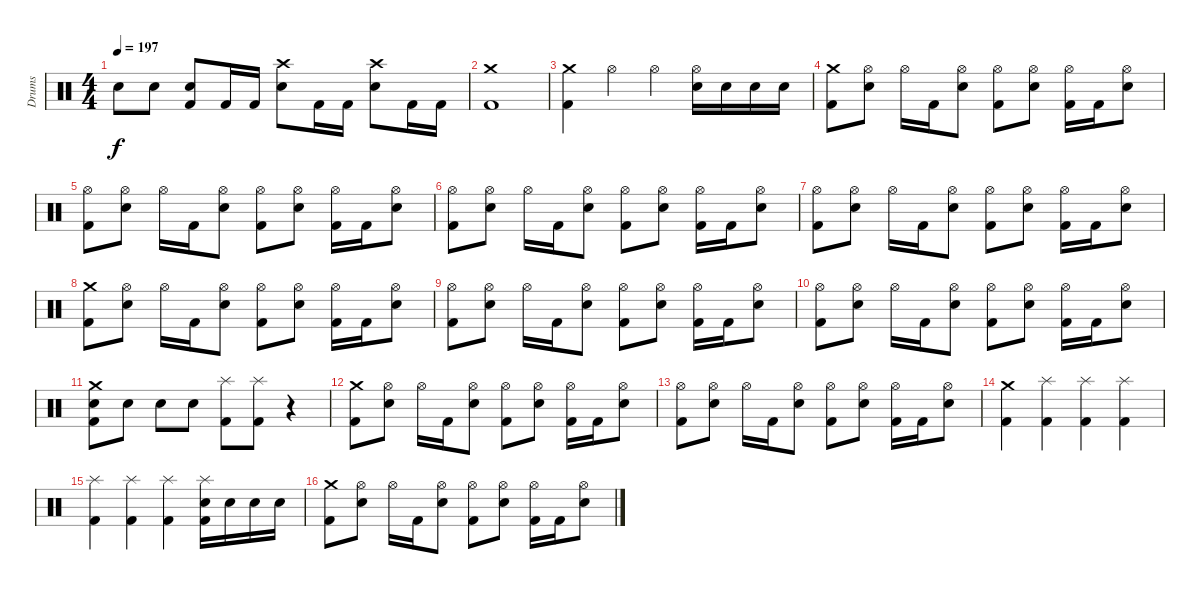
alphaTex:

\track ("Drums" "Drums") {instrument percussion}
\staff {score}
\articulation defaults
\ts (4 4)
\tempo 197
\clef neutral
\ks c "Snare (hit) 2".8{dy f} "Snare (hit) 2".8
("Snare (hit) 2" "Kick (hit) 2").8 "Kick (hit) 2".16 "Kick (hit) 2".16 ("Crash high (hit)" "Snare (hit) 2").8 "Kick (hit) 2".16 "Kick (hit) 2".16 ("Crash high (hit)" "Snare (hit) 2").8 "Kick (hit) 2".16 "Kick (hit) 2".16 |
("Crash medium (hit)" "Kick (hit) 2").1 |
("Crash medium (hit)" "Kick (hit) 2").4 "Hi-Hat (open)".4 "Hi-Hat (open)".4 ("Hi-Hat (open)" "Snare (hit) 2").16 "Snare (hit) 2".16 "Snare (hit) 2".16 "Snare (hit) 2".16 |
("Crash medium (hit)" "Kick (hit) 2").8 ("Hi-Hat (open)" "Snare (hit) 2").8 "Hi-Hat (open)".16 "Kick (hit) 2".16 ("Hi-Hat (open)" "Snare (hit) 2").8 ("Hi-Hat (open)" "Kick (hit) 2").8 ("Hi-Hat (open)" "Snare (hit) 2").8 ("Hi-Hat (open)" "Kick (hit) 2").16 "Kick (hit) 2".16 ("Hi-Hat (open)" "Snare (hit) 2").8 |
("Hi-Hat (open)" "Kick (hit) 2").8 ("Hi-Hat (open)" "Snare (hit) 2").8 "Hi-Hat (open)".16 "Kick (hit) 2".16 ("Hi-Hat (open)" "Snare (hit) 2").8 ("Hi-Hat (open)" "Kick (hit) 2").8 ("Hi-Hat (open)" "Snare (hit) 2").8 ("Hi-Hat (open)" "Kick (hit) 2").16 "Kick (hit) 2".16 ("Hi-Hat (open)" "Snare (hit) 2").8 |
("Hi-Hat (open)" "Kick (hit) 2").8 ("Hi-Hat (open)" "Snare (hit) 2").8 "Hi-Hat (open)".16 "Kick (hit) 2".16 ("Hi-Hat (open)" "Snare (hit) 2").8 ("Hi-Hat (open)" "Kick (hit) 2").8 ("Hi-Hat (open)" "Snare (hit) 2").8 ("Hi-Hat (open)" "Kick (hit) 2").16 "Kick (hit) 2".16 ("Hi-Hat (open)" "Snare (hit) 2").8 |
("Hi-Hat (open)" "Kick (hit) 2").8 ("Hi-Hat (open)" "Snare (hit) 2").8 "Hi-Hat (open)".16 "Kick (hit) 2".16 ("Hi-Hat (open)" "Snare (hit) 2").8 ("Hi-Hat (open)" "Kick (hit) 2").8 ("Hi-Hat (open)" "Snare (hit) 2").8 ("Hi-Hat (open)" "Kick (hit) 2").16 "Kick (hit) 2".16 ("Hi-Hat (open)" "Snare (hit) 2").8 |
("Crash medium (hit)" "Kick (hit) 2").8 ("Hi-Hat (open)" "Snare (hit) 2").8 "Hi-Hat (open)".16 "Kick (hit) 2".16 ("Hi-Hat (open)" "Snare (hit) 2").8 ("Hi-Hat (open)" "Kick (hit) 2").8 ("Hi-Hat (open)" "Snare (hit) 2").8 ("Hi-Hat (open)" "Kick (hit) 2").16 "Kick (hit) 2".16 ("Hi-Hat (open)" "Snare (hit) 2").8 |
("Hi-Hat (open)" "Kick (hit) 2").8 ("Hi-Hat (open)" "Snare (hit) 2").8 "Hi-Hat (open)".16 "Kick (hit) 2".16 ("Hi-Hat (open)" "Snare (hit) 2").8 ("Hi-Hat (open)" "Kick (hit) 2").8 ("Hi-Hat (open)" "Snare (hit) 2").8 ("Hi-Hat (open)" "Kick (hit) 2").16 "Kick (hit) 2".16 ("Hi-Hat (open)" "Snare (hit) 2").8 |
("Hi-Hat (open)" "Kick (hit) 2").8 ("Hi-Hat (open)" "Snare (hit) 2").8 "Hi-Hat (open)".16 "Kick (hit) 2".16 ("Hi-Hat (open)" "Snare (hit) 2").8 ("Hi-Hat (open)" "Kick (hit) 2").8 ("Hi-Hat (open)" "Snare (hit) 2").8 ("Hi-Hat (open)" "Kick (hit) 2").16 "Kick (hit) 2".16 ("Hi-Hat (open)" "Snare (hit) 2").8 |
("Crash medium (hit)" "Snare (hit) 2" "Kick (hit) 2").8 "Snare (hit) 2".8 "Snare (hit) 2".8 "Snare (hit) 2".8 ("Splash (hit)" "Kick (hit) 2").8 ("Splash (hit)" "Kick (hit) 2").8 r.4 |
("Crash medium (hit)" "Kick (hit) 2").8 ("Hi-Hat (open)" "Snare (hit) 2").8 "Hi-Hat (open)".16 "Kick (hit) 2".16 ("Hi-Hat (open)" "Snare (hit) 2").8 ("Hi-Hat (open)" "Kick (hit) 2").8 ("Hi-Hat (open)" "Snare (hit) 2").8 ("Hi-Hat (open)" "Kick (hit) 2").16 "Kick (hit) 2".16 ("Hi-Hat (open)" "Snare (hit) 2").8 |
("Hi-Hat (open)" "Kick (hit) 2").8 ("Hi-Hat (open)" "Snare (hit) 2").8 "Hi-Hat (open)".16 "Kick (hit) 2".16 ("Hi-Hat (open)" "Snare (hit) 2").8 ("Hi-Hat (open)" "Kick (hit) 2").8 ("Hi-Hat (open)" "Snare (hit) 2").8 ("Hi-Hat (open)" "Kick (hit) 2").16 "Kick (hit) 2".16 ("Hi-Hat (open)" "Snare (hit) 2").8 |
("Crash medium (hit)" "Kick (hit) 2").4 ("Splash (hit)" "Kick (hit) 2").4 ("Splash (hit)" "Kick (hit) 2").4 ("Splash (hit)" "Kick (hit) 2").4 |
("Splash (hit)" "Kick (hit) 2").4 ("Splash (hit)" "Kick (hit) 2").4 ("Splash (hit)" "Kick (hit) 2").4 ("Splash (hit)" "Snare (hit) 2" "Kick (hit) 2").16 "Snare (hit) 2".16 "Snare (hit) 2".16 "Snare (hit) 2".16 |
("Crash medium (hit)" "Kick (hit) 2").8 ("Hi-Hat (open)" "Snare (hit) 2").8 "Hi-Hat (open)".16 "Kick (hit) 2".16 ("Hi-Hat (open)" "Snare (hit) 2").8 ("Hi-Hat (open)" "Kick (hit) 2").8 ("Hi-Hat (open)" "Snare (hit) 2").8 ("Hi-Hat (open)" "Kick (hit) 2").16 "Kick (hit) 2".16 ("Hi-Hat (open)" "Snare (hit) 2").8
